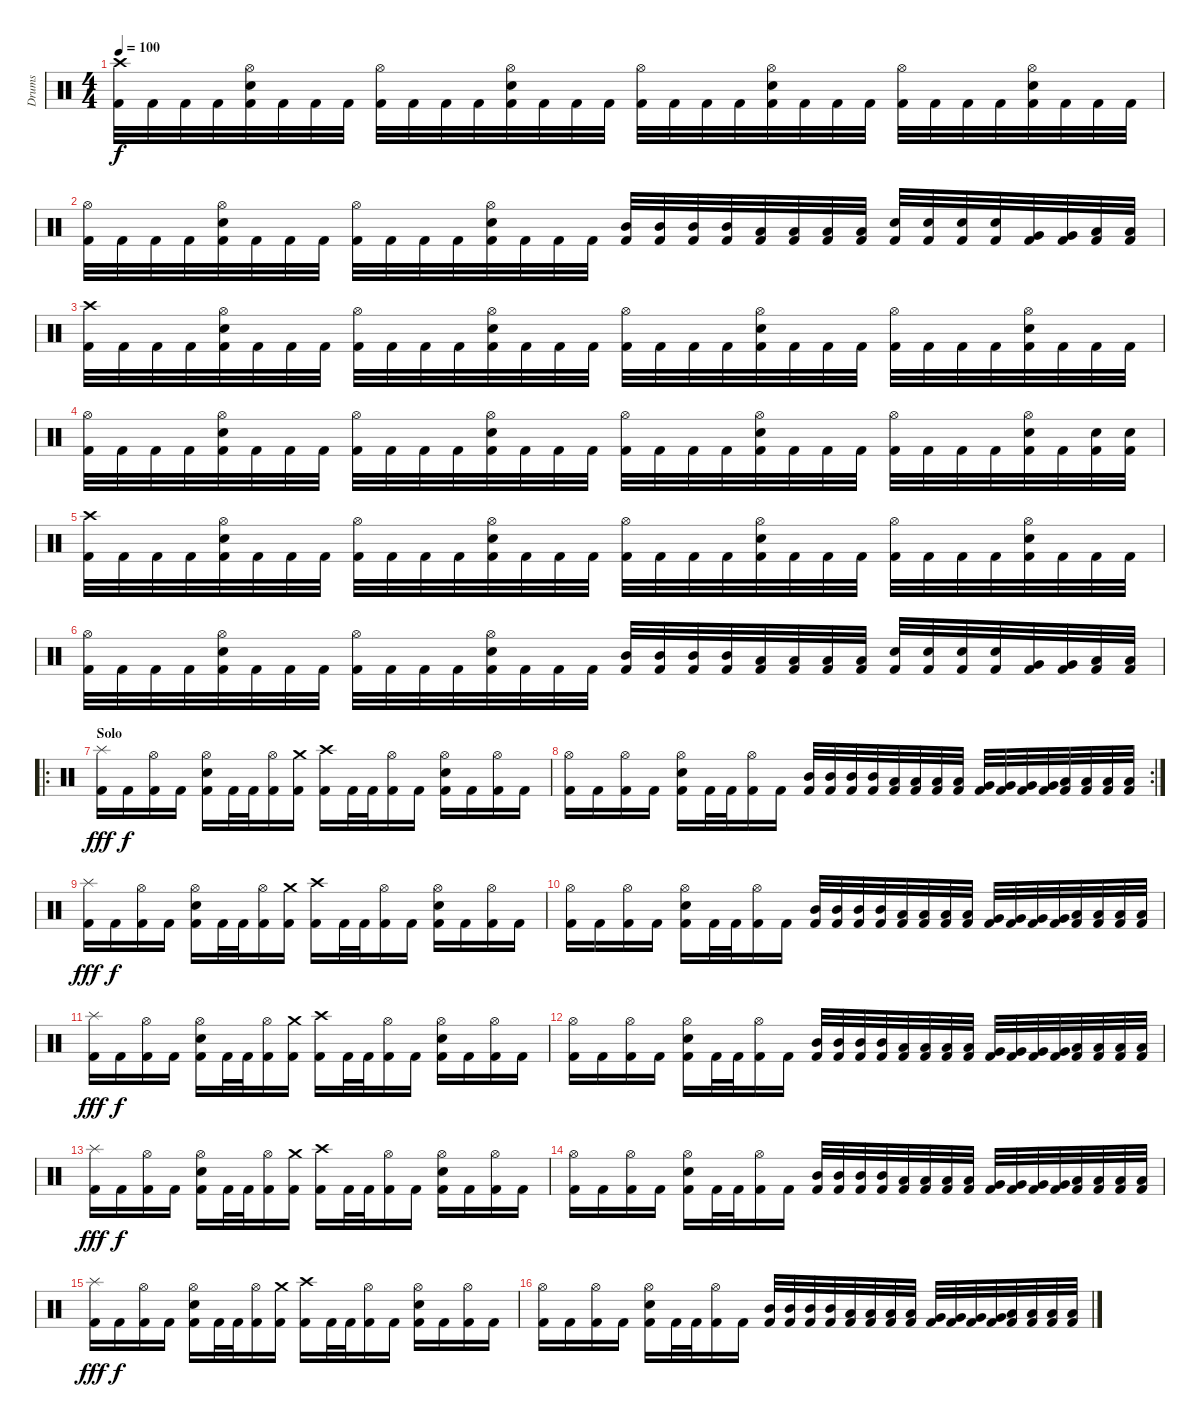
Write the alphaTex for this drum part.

\track ("Drums" "Drums") {instrument percussion}
\staff {score}
\articulation defaults
\ts (4 4)
\tempo 100
\clef neutral
\ks c
("Crash high (hit)" "Kick (hit) 2").32{dy f} "Kick (hit) 2".32 "Kick (hit) 2".32 "Kick (hit) 2".32 ("Hi-Hat (open)" "Electric Snare (hit)" "Kick (hit) 2").32 "Kick (hit) 2".32 "Kick (hit) 2".32 "Kick (hit) 2".32 ("Hi-Hat (open)" "Kick (hit) 2").32 "Kick (hit) 2".32 "Kick (hit) 2".32 "Kick (hit) 2".32 ("Hi-Hat (open)" "Electric Snare (hit)" "Kick (hit) 2").32 "Kick (hit) 2".32 "Kick (hit) 2".32 "Kick (hit) 2".32 ("Hi-Hat (open)" "Kick (hit) 2").32 "Kick (hit) 2".32 "Kick (hit) 2".32 "Kick (hit) 2".32 ("Hi-Hat (open)" "Electric Snare (hit)" "Kick (hit) 2").32 "Kick (hit) 2".32 "Kick (hit) 2".32 "Kick (hit) 2".32 ("Hi-Hat (open)" "Kick (hit) 2").32 "Kick (hit) 2".32 "Kick (hit) 2".32 "Kick (hit) 2".32 ("Hi-Hat (open)" "Electric Snare (hit)" "Kick (hit) 2").32 "Kick (hit) 2".32 "Kick (hit) 2".32 "Kick (hit) 2".32 |
("Hi-Hat (open)" "Kick (hit) 2").32 "Kick (hit) 2".32 "Kick (hit) 2".32 "Kick (hit) 2".32 ("Hi-Hat (open)" "Electric Snare (hit)" "Kick (hit) 2").32 "Kick (hit) 2".32 "Kick (hit) 2".32 "Kick (hit) 2".32 ("Hi-Hat (open)" "Kick (hit) 2").32 "Kick (hit) 2".32 "Kick (hit) 2".32 "Kick (hit) 2".32 ("Hi-Hat (open)" "Electric Snare (hit)" "Kick (hit) 2").32 "Kick (hit) 2".32 "Kick (hit) 2".32 "Kick (hit) 2".32 ("Mid Tom (hit)" "Kick (hit) 2").32 ("Mid Tom (hit)" "Kick (hit) 2").32 ("Mid Tom (hit)" "Kick (hit) 2").32 ("Mid Tom (hit)" "Kick (hit) 2").32 ("Low Tom (hit)" "Kick (hit) 2").32 ("Low Tom (hit)" "Kick (hit) 2").32 ("Low Tom (hit)" "Kick (hit) 2").32 ("Low Tom (hit)" "Kick (hit) 2").32 ("Electric Snare (hit)" "Kick (hit) 2").32 ("Electric Snare (hit)" "Kick (hit) 2").32 ("Electric Snare (hit)" "Kick (hit) 2").32 ("Electric Snare (hit)" "Kick (hit) 2").32 ("Very Low Tom (hit)" "Kick (hit) 2").32 ("Very Low Tom (hit)" "Kick (hit) 2").32 ("Low Floor Tom (hit)" "Kick (hit) 2").32 ("Low Floor Tom (hit)" "Kick (hit) 2").32 |
("Crash high (hit)" "Kick (hit) 2").32 "Kick (hit) 2".32 "Kick (hit) 2".32 "Kick (hit) 2".32 ("Hi-Hat (open)" "Electric Snare (hit)" "Kick (hit) 2").32 "Kick (hit) 2".32 "Kick (hit) 2".32 "Kick (hit) 2".32 ("Hi-Hat (open)" "Kick (hit) 2").32 "Kick (hit) 2".32 "Kick (hit) 2".32 "Kick (hit) 2".32 ("Hi-Hat (open)" "Electric Snare (hit)" "Kick (hit) 2").32 "Kick (hit) 2".32 "Kick (hit) 2".32 "Kick (hit) 2".32 ("Hi-Hat (open)" "Kick (hit) 2").32 "Kick (hit) 2".32 "Kick (hit) 2".32 "Kick (hit) 2".32 ("Hi-Hat (open)" "Electric Snare (hit)" "Kick (hit) 2").32 "Kick (hit) 2".32 "Kick (hit) 2".32 "Kick (hit) 2".32 ("Hi-Hat (open)" "Kick (hit) 2").32 "Kick (hit) 2".32 "Kick (hit) 2".32 "Kick (hit) 2".32 ("Hi-Hat (open)" "Electric Snare (hit)" "Kick (hit) 2").32 "Kick (hit) 2".32 "Kick (hit) 2".32 "Kick (hit) 2".32 |
("Hi-Hat (open)" "Kick (hit) 2").32 "Kick (hit) 2".32 "Kick (hit) 2".32 "Kick (hit) 2".32 ("Hi-Hat (open)" "Electric Snare (hit)" "Kick (hit) 2").32 "Kick (hit) 2".32 "Kick (hit) 2".32 "Kick (hit) 2".32 ("Hi-Hat (open)" "Kick (hit) 2").32 "Kick (hit) 2".32 "Kick (hit) 2".32 "Kick (hit) 2".32 ("Hi-Hat (open)" "Electric Snare (hit)" "Kick (hit) 2").32 "Kick (hit) 2".32 "Kick (hit) 2".32 "Kick (hit) 2".32 ("Hi-Hat (open)" "Kick (hit) 2").32 "Kick (hit) 2".32 "Kick (hit) 2".32 "Kick (hit) 2".32 ("Hi-Hat (open)" "Electric Snare (hit)" "Kick (hit) 2").32 "Kick (hit) 2".32 "Kick (hit) 2".32 "Kick (hit) 2".32 ("Hi-Hat (open)" "Kick (hit) 2").32 "Kick (hit) 2".32 "Kick (hit) 2".32 "Kick (hit) 2".32 ("Hi-Hat (open)" "Electric Snare (hit)" "Kick (hit) 2").32 "Kick (hit) 2".32 ("Electric Snare (hit)" "Kick (hit) 2").32 ("Electric Snare (hit)" "Kick (hit) 2").32 |
("Crash high (hit)" "Kick (hit) 2").32 "Kick (hit) 2".32 "Kick (hit) 2".32 "Kick (hit) 2".32 ("Hi-Hat (open)" "Electric Snare (hit)" "Kick (hit) 2").32 "Kick (hit) 2".32 "Kick (hit) 2".32 "Kick (hit) 2".32 ("Hi-Hat (open)" "Kick (hit) 2").32 "Kick (hit) 2".32 "Kick (hit) 2".32 "Kick (hit) 2".32 ("Hi-Hat (open)" "Electric Snare (hit)" "Kick (hit) 2").32 "Kick (hit) 2".32 "Kick (hit) 2".32 "Kick (hit) 2".32 ("Hi-Hat (open)" "Kick (hit) 2").32 "Kick (hit) 2".32 "Kick (hit) 2".32 "Kick (hit) 2".32 ("Hi-Hat (open)" "Electric Snare (hit)" "Kick (hit) 2").32 "Kick (hit) 2".32 "Kick (hit) 2".32 "Kick (hit) 2".32 ("Hi-Hat (open)" "Kick (hit) 2").32 "Kick (hit) 2".32 "Kick (hit) 2".32 "Kick (hit) 2".32 ("Hi-Hat (open)" "Electric Snare (hit)" "Kick (hit) 2").32 "Kick (hit) 2".32 "Kick (hit) 2".32 "Kick (hit) 2".32 |
("Hi-Hat (open)" "Kick (hit) 2").32 "Kick (hit) 2".32 "Kick (hit) 2".32 "Kick (hit) 2".32 ("Hi-Hat (open)" "Electric Snare (hit)" "Kick (hit) 2").32 "Kick (hit) 2".32 "Kick (hit) 2".32 "Kick (hit) 2".32 ("Hi-Hat (open)" "Kick (hit) 2").32 "Kick (hit) 2".32 "Kick (hit) 2".32 "Kick (hit) 2".32 ("Hi-Hat (open)" "Electric Snare (hit)" "Kick (hit) 2").32 "Kick (hit) 2".32 "Kick (hit) 2".32 "Kick (hit) 2".32 ("Mid Tom (hit)" "Kick (hit) 2").32 ("Mid Tom (hit)" "Kick (hit) 2").32 ("Mid Tom (hit)" "Kick (hit) 2").32 ("Mid Tom (hit)" "Kick (hit) 2").32 ("Low Tom (hit)" "Kick (hit) 2").32 ("Low Tom (hit)" "Kick (hit) 2").32 ("Low Tom (hit)" "Kick (hit) 2").32 ("Low Tom (hit)" "Kick (hit) 2").32 ("Electric Snare (hit)" "Kick (hit) 2").32 ("Electric Snare (hit)" "Kick (hit) 2").32 ("Electric Snare (hit)" "Kick (hit) 2").32 ("Electric Snare (hit)" "Kick (hit) 2").32 ("Very Low Tom (hit)" "Kick (hit) 2").32 ("Very Low Tom (hit)" "Kick (hit) 2").32 ("Low Floor Tom (hit)" "Kick (hit) 2").32 ("Low Floor Tom (hit)" "Kick (hit) 2").32 |
\ro
\section ("" "Solo")
("Splash (hit)" "Kick (hit) 2").16{dy fff} "Kick (hit) 2".16{dy f} ("Hi-Hat (open)" "Kick (hit) 2").16 "Kick (hit) 2".16 ("Hi-Hat (open)" "Electric Snare (hit)" "Kick (hit) 2").16 "Kick (hit) 2".32 "Kick (hit) 2".32 ("Hi-Hat (open)" "Kick (hit) 2").16 ("Crash medium (hit)" "Kick (hit) 2").16 ("Crash high (hit)" "Kick (hit) 2").16 "Kick (hit) 2".32 "Kick (hit) 2".32 ("Hi-Hat (open)" "Kick (hit) 2").16 "Kick (hit) 2".16 ("Hi-Hat (open)" "Electric Snare (hit)" "Kick (hit) 2").16 "Kick (hit) 2".16 ("Hi-Hat (open)" "Kick (hit) 2").16 "Kick (hit) 2".16 |
\rc 2
("Hi-Hat (open)" "Kick (hit) 2").16 "Kick (hit) 2".16 ("Hi-Hat (open)" "Kick (hit) 2").16 "Kick (hit) 2".16 ("Hi-Hat (open)" "Electric Snare (hit)" "Kick (hit) 2").16 "Kick (hit) 2".32 "Kick (hit) 2".32 ("Hi-Hat (open)" "Kick (hit) 2").16 "Kick (hit) 2".16 ("Kick (hit) 2" "Mid Tom (hit)").32 ("Kick (hit) 2" "Mid Tom (hit)").32 ("Kick (hit) 2" "Mid Tom (hit)").32 ("Kick (hit) 2" "Mid Tom (hit)").32 ("Kick (hit) 2" "Low Tom (hit)").32 ("Kick (hit) 2" "Low Tom (hit)").32 ("Kick (hit) 2" "Low Tom (hit)").32 ("Kick (hit) 2" "Low Tom (hit)").32 ("Kick (hit) 2" "Very Low Tom (hit)").32 ("Kick (hit) 2" "Very Low Tom (hit)").32 ("Kick (hit) 2" "Very Low Tom (hit)").32 ("Kick (hit) 2" "Very Low Tom (hit)").32 ("Kick (hit) 2" "Low Floor Tom (hit)").32 ("Kick (hit) 2" "Low Floor Tom (hit)").32 ("Kick (hit) 2" "Low Floor Tom (hit)").32 ("Kick (hit) 2" "Low Floor Tom (hit)").32 |
("Splash (hit)" "Kick (hit) 2").16{dy fff} "Kick (hit) 2".16{dy f} ("Hi-Hat (open)" "Kick (hit) 2").16 "Kick (hit) 2".16 ("Hi-Hat (open)" "Electric Snare (hit)" "Kick (hit) 2").16 "Kick (hit) 2".32 "Kick (hit) 2".32 ("Hi-Hat (open)" "Kick (hit) 2").16 ("Crash medium (hit)" "Kick (hit) 2").16 ("Crash high (hit)" "Kick (hit) 2").16 "Kick (hit) 2".32 "Kick (hit) 2".32 ("Hi-Hat (open)" "Kick (hit) 2").16 "Kick (hit) 2".16 ("Hi-Hat (open)" "Electric Snare (hit)" "Kick (hit) 2").16 "Kick (hit) 2".16 ("Hi-Hat (open)" "Kick (hit) 2").16 "Kick (hit) 2".16 |
("Hi-Hat (open)" "Kick (hit) 2").16 "Kick (hit) 2".16 ("Hi-Hat (open)" "Kick (hit) 2").16 "Kick (hit) 2".16 ("Hi-Hat (open)" "Electric Snare (hit)" "Kick (hit) 2").16 "Kick (hit) 2".32 "Kick (hit) 2".32 ("Hi-Hat (open)" "Kick (hit) 2").16 "Kick (hit) 2".16 ("Kick (hit) 2" "Mid Tom (hit)").32 ("Kick (hit) 2" "Mid Tom (hit)").32 ("Kick (hit) 2" "Mid Tom (hit)").32 ("Kick (hit) 2" "Mid Tom (hit)").32 ("Kick (hit) 2" "Low Tom (hit)").32 ("Kick (hit) 2" "Low Tom (hit)").32 ("Kick (hit) 2" "Low Tom (hit)").32 ("Kick (hit) 2" "Low Tom (hit)").32 ("Kick (hit) 2" "Very Low Tom (hit)").32 ("Kick (hit) 2" "Very Low Tom (hit)").32 ("Kick (hit) 2" "Very Low Tom (hit)").32 ("Kick (hit) 2" "Very Low Tom (hit)").32 ("Kick (hit) 2" "Low Floor Tom (hit)").32 ("Kick (hit) 2" "Low Floor Tom (hit)").32 ("Kick (hit) 2" "Low Floor Tom (hit)").32 ("Kick (hit) 2" "Low Floor Tom (hit)").32 |
("Splash (hit)" "Kick (hit) 2").16{dy fff} "Kick (hit) 2".16{dy f} ("Hi-Hat (open)" "Kick (hit) 2").16 "Kick (hit) 2".16 ("Hi-Hat (open)" "Electric Snare (hit)" "Kick (hit) 2").16 "Kick (hit) 2".32 "Kick (hit) 2".32 ("Hi-Hat (open)" "Kick (hit) 2").16 ("Crash medium (hit)" "Kick (hit) 2").16 ("Crash high (hit)" "Kick (hit) 2").16 "Kick (hit) 2".32 "Kick (hit) 2".32 ("Hi-Hat (open)" "Kick (hit) 2").16 "Kick (hit) 2".16 ("Hi-Hat (open)" "Electric Snare (hit)" "Kick (hit) 2").16 "Kick (hit) 2".16 ("Hi-Hat (open)" "Kick (hit) 2").16 "Kick (hit) 2".16 |
("Hi-Hat (open)" "Kick (hit) 2").16 "Kick (hit) 2".16 ("Hi-Hat (open)" "Kick (hit) 2").16 "Kick (hit) 2".16 ("Hi-Hat (open)" "Electric Snare (hit)" "Kick (hit) 2").16 "Kick (hit) 2".32 "Kick (hit) 2".32 ("Hi-Hat (open)" "Kick (hit) 2").16 "Kick (hit) 2".16 ("Kick (hit) 2" "Mid Tom (hit)").32 ("Kick (hit) 2" "Mid Tom (hit)").32 ("Kick (hit) 2" "Mid Tom (hit)").32 ("Kick (hit) 2" "Mid Tom (hit)").32 ("Kick (hit) 2" "Low Tom (hit)").32 ("Kick (hit) 2" "Low Tom (hit)").32 ("Kick (hit) 2" "Low Tom (hit)").32 ("Kick (hit) 2" "Low Tom (hit)").32 ("Kick (hit) 2" "Very Low Tom (hit)").32 ("Kick (hit) 2" "Very Low Tom (hit)").32 ("Kick (hit) 2" "Very Low Tom (hit)").32 ("Kick (hit) 2" "Very Low Tom (hit)").32 ("Kick (hit) 2" "Low Floor Tom (hit)").32 ("Kick (hit) 2" "Low Floor Tom (hit)").32 ("Kick (hit) 2" "Low Floor Tom (hit)").32 ("Kick (hit) 2" "Low Floor Tom (hit)").32 |
("Splash (hit)" "Kick (hit) 2").16{dy fff} "Kick (hit) 2".16{dy f} ("Hi-Hat (open)" "Kick (hit) 2").16 "Kick (hit) 2".16 ("Hi-Hat (open)" "Electric Snare (hit)" "Kick (hit) 2").16 "Kick (hit) 2".32 "Kick (hit) 2".32 ("Hi-Hat (open)" "Kick (hit) 2").16 ("Crash medium (hit)" "Kick (hit) 2").16 ("Crash high (hit)" "Kick (hit) 2").16 "Kick (hit) 2".32 "Kick (hit) 2".32 ("Hi-Hat (open)" "Kick (hit) 2").16 "Kick (hit) 2".16 ("Hi-Hat (open)" "Electric Snare (hit)" "Kick (hit) 2").16 "Kick (hit) 2".16 ("Hi-Hat (open)" "Kick (hit) 2").16 "Kick (hit) 2".16 |
("Hi-Hat (open)" "Kick (hit) 2").16 "Kick (hit) 2".16 ("Hi-Hat (open)" "Kick (hit) 2").16 "Kick (hit) 2".16 ("Hi-Hat (open)" "Electric Snare (hit)" "Kick (hit) 2").16 "Kick (hit) 2".32 "Kick (hit) 2".32 ("Hi-Hat (open)" "Kick (hit) 2").16 "Kick (hit) 2".16 ("Kick (hit) 2" "Mid Tom (hit)").32 ("Kick (hit) 2" "Mid Tom (hit)").32 ("Kick (hit) 2" "Mid Tom (hit)").32 ("Kick (hit) 2" "Mid Tom (hit)").32 ("Kick (hit) 2" "Low Tom (hit)").32 ("Kick (hit) 2" "Low Tom (hit)").32 ("Kick (hit) 2" "Low Tom (hit)").32 ("Kick (hit) 2" "Low Tom (hit)").32 ("Kick (hit) 2" "Very Low Tom (hit)").32 ("Kick (hit) 2" "Very Low Tom (hit)").32 ("Kick (hit) 2" "Very Low Tom (hit)").32 ("Kick (hit) 2" "Very Low Tom (hit)").32 ("Kick (hit) 2" "Low Floor Tom (hit)").32 ("Kick (hit) 2" "Low Floor Tom (hit)").32 ("Kick (hit) 2" "Low Floor Tom (hit)").32 ("Kick (hit) 2" "Low Floor Tom (hit)").32 |
("Splash (hit)" "Kick (hit) 2").16{dy fff} "Kick (hit) 2".16{dy f} ("Hi-Hat (open)" "Kick (hit) 2").16 "Kick (hit) 2".16 ("Hi-Hat (open)" "Electric Snare (hit)" "Kick (hit) 2").16 "Kick (hit) 2".32 "Kick (hit) 2".32 ("Hi-Hat (open)" "Kick (hit) 2").16 ("Crash medium (hit)" "Kick (hit) 2").16 ("Crash high (hit)" "Kick (hit) 2").16 "Kick (hit) 2".32 "Kick (hit) 2".32 ("Hi-Hat (open)" "Kick (hit) 2").16 "Kick (hit) 2".16 ("Hi-Hat (open)" "Electric Snare (hit)" "Kick (hit) 2").16 "Kick (hit) 2".16 ("Hi-Hat (open)" "Kick (hit) 2").16 "Kick (hit) 2".16 |
("Hi-Hat (open)" "Kick (hit) 2").16 "Kick (hit) 2".16 ("Hi-Hat (open)" "Kick (hit) 2").16 "Kick (hit) 2".16 ("Hi-Hat (open)" "Electric Snare (hit)" "Kick (hit) 2").16 "Kick (hit) 2".32 "Kick (hit) 2".32 ("Hi-Hat (open)" "Kick (hit) 2").16 "Kick (hit) 2".16 ("Kick (hit) 2" "Mid Tom (hit)").32 ("Kick (hit) 2" "Mid Tom (hit)").32 ("Kick (hit) 2" "Mid Tom (hit)").32 ("Kick (hit) 2" "Mid Tom (hit)").32 ("Kick (hit) 2" "Low Tom (hit)").32 ("Kick (hit) 2" "Low Tom (hit)").32 ("Kick (hit) 2" "Low Tom (hit)").32 ("Kick (hit) 2" "Low Tom (hit)").32 ("Kick (hit) 2" "Very Low Tom (hit)").32 ("Kick (hit) 2" "Very Low Tom (hit)").32 ("Kick (hit) 2" "Very Low Tom (hit)").32 ("Kick (hit) 2" "Very Low Tom (hit)").32 ("Kick (hit) 2" "Low Floor Tom (hit)").32 ("Kick (hit) 2" "Low Floor Tom (hit)").32 ("Kick (hit) 2" "Low Floor Tom (hit)").32 ("Kick (hit) 2" "Low Floor Tom (hit)").32
